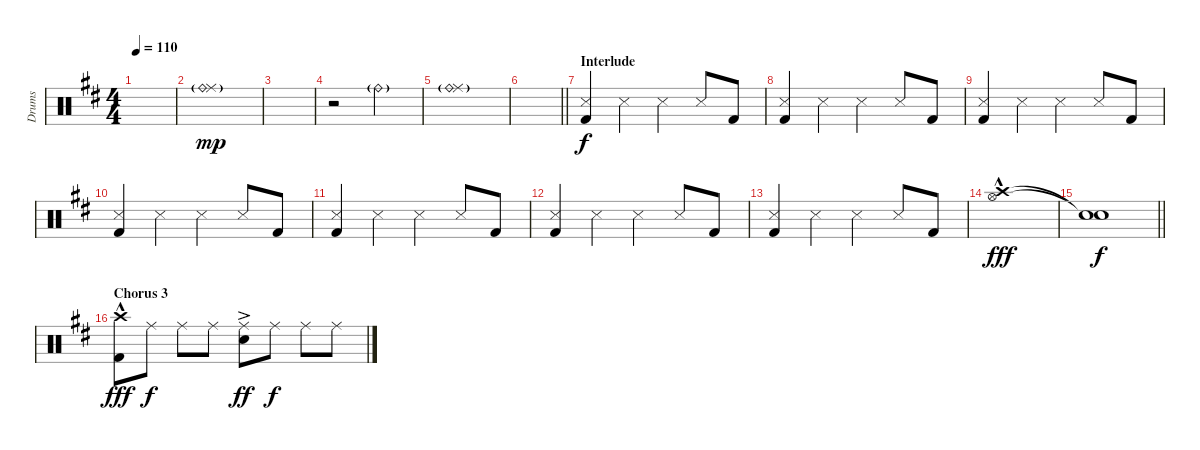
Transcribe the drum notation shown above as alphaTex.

\track ("Drums" "Drums") {instrument percussion}
\staff {score}
\articulation defaults
\ts (4 4)
\tempo 110
\clef neutral
\ks d
|
("Ride (middle)"{g} "Ride (bell)"{g}).1{dy mp} |
|
r.2 "Ride (bell)"{g}.2 |
("Ride (middle)"{g} "Ride (bell)"{g}).1 |
\barLineRight lightlight
|
\section ("" "Interlude")
("Snare (side stick) 3" "Kick (hit) 2").4{dy f} "Snare (side stick) 3".4 "Snare (side stick) 3".4 "Snare (side stick) 3".8 "Kick (hit) 2".8 |
("Snare (side stick) 3" "Kick (hit) 2").4 "Snare (side stick) 3".4 "Snare (side stick) 3".4 "Snare (side stick) 3".8 "Kick (hit) 2".8 |
("Snare (side stick) 3" "Kick (hit) 2").4 "Snare (side stick) 3".4 "Snare (side stick) 3".4 "Snare (side stick) 3".8 "Kick (hit) 2".8 |
("Snare (side stick) 3" "Kick (hit) 2").4 "Snare (side stick) 3".4 "Snare (side stick) 3".4 "Snare (side stick) 3".8 "Kick (hit) 2".8 |
("Snare (side stick) 3" "Kick (hit) 2").4 "Snare (side stick) 3".4 "Snare (side stick) 3".4 "Snare (side stick) 3".8 "Kick (hit) 2".8 |
("Snare (side stick) 3" "Kick (hit) 2").4 "Snare (side stick) 3".4 "Snare (side stick) 3".4 "Snare (side stick) 3".8 "Kick (hit) 2".8 |
("Snare (side stick) 3" "Kick (hit) 2").4 "Snare (side stick) 3".4 "Snare (side stick) 3".4 "Snare (side stick) 3".8 "Kick (hit) 2".8 |
("Crash high (hit)"{hac} "Hi-Hat (open)").1{dy fff} |
\barLineRight lightlight
("Snare (hit)"{t} "Snare (hit)"{t}).1{dy f} |
\section ("" "Chorus 3")
("Crash high (hit)" "Kick (hit) 2"{hac}).8{dy fff} "Ride (middle)".8{dy f} "Ride (middle)".8 "Ride (middle)".8 ("Snare (hit) 2"{ac} "Ride (middle)").8{dy ff} "Ride (middle)".8{dy f} "Ride (middle)".8 "Ride (middle)".8
